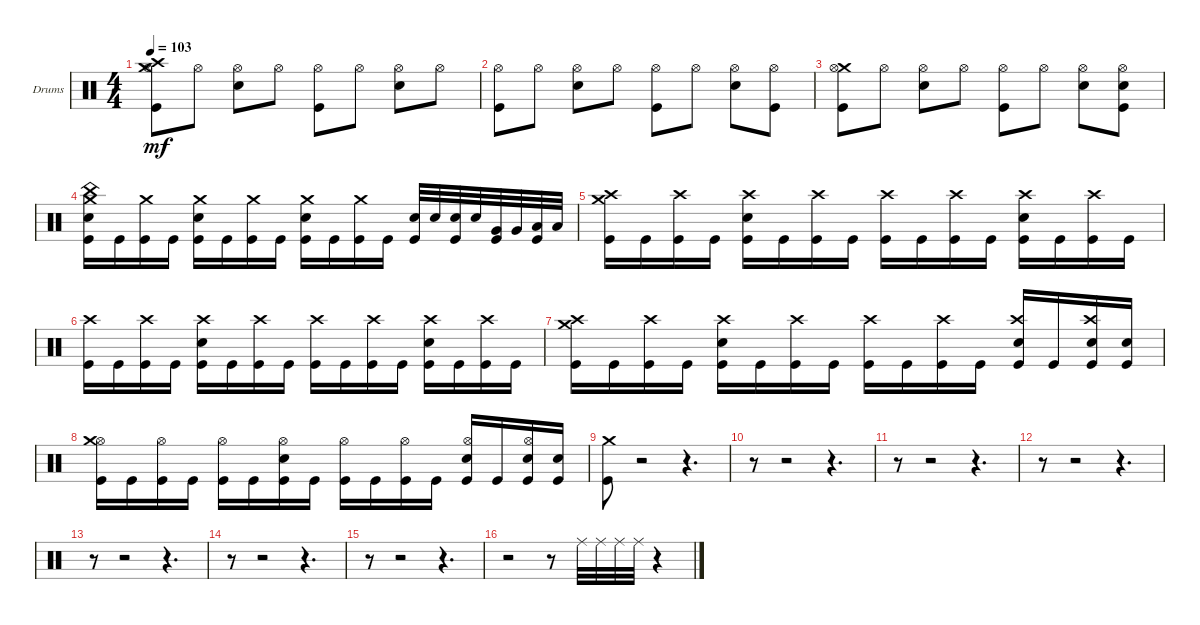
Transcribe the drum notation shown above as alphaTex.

\bracketExtendMode groupsimilarinstruments
\firstSystemTrackNameOrientation horizontal
\otherSystemsTrackNameOrientation horizontal
\track ("Drums" "Drums") {instrument percussion}
\staff {score}
\articulation defaults
\ts (4 4)
\tempo 103
\clef neutral
\ks c
("Kick (hit)" "Crash medium (hit)" "Hi-Hat (open)" "Crash high (hit)").8{dy mf} "Hi-Hat (open)".8 ("Snare (hit) 2" "Hi-Hat (open)").8 "Hi-Hat (open)".8 ("Kick (hit)" "Hi-Hat (open)").8 "Hi-Hat (open)".8 ("Snare (hit) 2" "Hi-Hat (open)").8 "Hi-Hat (open)".8 |
("Kick (hit)" "Hi-Hat (open)").8 "Hi-Hat (open)".8 ("Snare (hit) 2" "Hi-Hat (open)").8 "Hi-Hat (open)".8 ("Kick (hit)" "Hi-Hat (open)").8 "Hi-Hat (open)".8 ("Snare (hit) 2" "Hi-Hat (open)").8 ("Kick (hit)" "Hi-Hat (open)").8 |
("Crash medium (hit)" "Kick (hit)" "Hi-Hat (open)").8 "Hi-Hat (open)".8 ("Snare (hit) 2" "Hi-Hat (open)").8 "Hi-Hat (open)".8 ("Kick (hit)" "Hi-Hat (open)").8 "Hi-Hat (open)".8 ("Snare (hit) 2" "Hi-Hat (open)").8 ("Snare (hit) 2" "Kick (hit)" "Hi-Hat (open)").8 |
("Kick (hit)" "Crash medium (hit)" "Snare (hit) 2" "China (hit)").16 "Kick (hit)".16 ("Kick (hit)" "Crash medium (hit)").16 "Kick (hit)".16 ("Kick (hit)" "Crash medium (hit)" "Snare (hit) 2").16 "Kick (hit)".16 ("Kick (hit)" "Crash medium (hit)").16 "Kick (hit)".16 ("Kick (hit)" "Crash medium (hit)" "Snare (hit) 2").16 "Kick (hit)".16 ("Kick (hit)" "Crash medium (hit)").16 "Kick (hit)".16 ("Snare (hit) 2" "Kick (hit)").32 "Snare (hit) 2".32 ("Snare (hit) 2" "Kick (hit)").32 "Snare (hit) 2".32 ("Very Low Tom (hit)" "Kick (hit)").32 "Very Low Tom (hit)".32 ("Low Tom (hit)" "Kick (hit)").32 "Low Tom (hit)".32 |
("Kick (hit)" "Crash medium (hit)" "Crash high (hit)").16 "Kick (hit)".16 ("Kick (hit)" "Crash high (hit)").16 "Kick (hit)".16 ("Kick (hit)" "Snare (hit) 2" "Crash high (hit)").16 "Kick (hit)".16 ("Kick (hit)" "Crash high (hit)").16 "Kick (hit)".16 ("Kick (hit)" "Crash high (hit)").16 "Kick (hit)".16 ("Kick (hit)" "Crash high (hit)").16 "Kick (hit)".16 ("Kick (hit)" "Snare (hit) 2" "Crash high (hit)").16 "Kick (hit)".16 ("Kick (hit)" "Crash high (hit)").16 "Kick (hit)".16 |
("Kick (hit)" "Crash high (hit)").16 "Kick (hit)".16 ("Kick (hit)" "Crash high (hit)").16 "Kick (hit)".16 ("Kick (hit)" "Crash high (hit)" "Snare (hit) 2").16 "Kick (hit)".16 ("Kick (hit)" "Crash high (hit)").16 "Kick (hit)".16 ("Kick (hit)" "Crash high (hit)").16 "Kick (hit)".16 ("Kick (hit)" "Crash high (hit)").16 "Kick (hit)".16 ("Kick (hit)" "Crash high (hit)" "Snare (hit) 2").16 "Kick (hit)".16 ("Kick (hit)" "Crash high (hit)").16 "Kick (hit)".16 |
("Kick (hit)" "Crash medium (hit)" "Crash high (hit)").16 "Kick (hit)".16 ("Kick (hit)" "Crash high (hit)").16 "Kick (hit)".16 ("Kick (hit)" "Crash high (hit)" "Snare (hit) 2").16 "Kick (hit)".16 ("Kick (hit)" "Crash high (hit)").16 "Kick (hit)".16 ("Kick (hit)" "Crash high (hit)").16 "Kick (hit)".16 ("Kick (hit)" "Crash high (hit)").16 "Kick (hit)".16 ("Kick (hit)" "Crash high (hit)" "Snare (hit) 2").16 "Kick (hit)".16 ("Kick (hit)" "Snare (hit) 2" "Crash high (hit)").16 ("Kick (hit)" "Snare (hit) 2").16 |
("Kick (hit)" "Hi-Hat (open)" "Crash medium (hit)").16 "Kick (hit)".16 ("Kick (hit)" "Hi-Hat (open)").16 "Kick (hit)".16 ("Kick (hit)" "Hi-Hat (open)").16 "Kick (hit)".16 ("Kick (hit)" "Hi-Hat (open)" "Snare (hit) 2").16 "Kick (hit)".16 ("Kick (hit)" "Hi-Hat (open)").16 "Kick (hit)".16 ("Kick (hit)" "Hi-Hat (open)").16 "Kick (hit)".16 ("Kick (hit)" "Hi-Hat (open)" "Snare (hit) 2").16 "Kick (hit)".16 ("Snare (hit) 2" "Kick (hit)" "Hi-Hat (open)").16 ("Kick (hit)" "Snare (hit) 2").16 |
("Kick (hit)" "Crash medium (hit)").8 r.2 r.4{d} |
r.8 r.2 r.4{d} |
r.8 r.2 r.4{d} |
r.8 r.2 r.4{d} |
r.8 r.2 r.4{d} |
r.8 r.2 r.4{d} |
r.8 r.2 r.4{d} |
r.2 r.8 "Ride (middle)".32 "Ride (middle)".32 "Ride (middle)".32 "Ride (middle)".32 r.4
